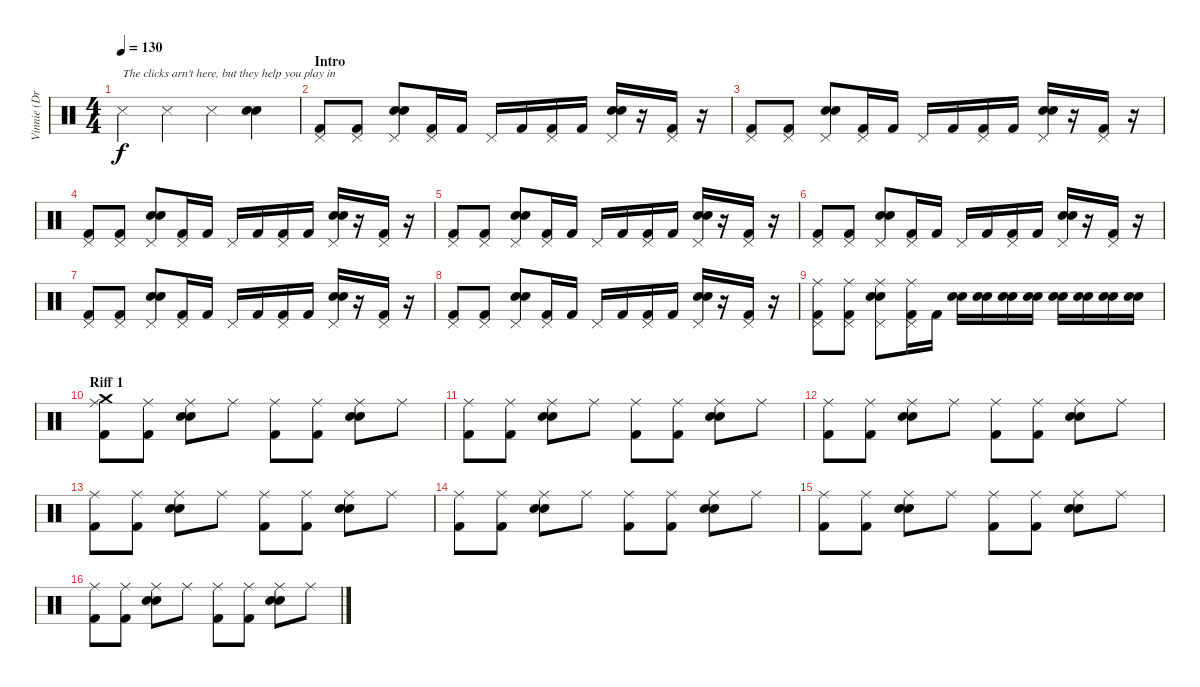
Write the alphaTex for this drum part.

\track ("Vinnie (Drums)" "Vinnie (Dr") {instrument percussion}
\staff {score}
\articulation defaults
\ts (4 4)
\tempo 130
\clef neutral
\ks c "Snare (side stick) 3".4{txt "The clicks arn't here, but they help you play in" dy f} "Snare (side stick) 3".4 "Snare (side stick) 3".4
("Snare (hit) 2" "Electric Snare (hit)").4 |
\section ("" "Intro")
("Kick (hit) 2" "Pedal Hi-Hat (hit)").8 ("Kick (hit) 2" "Pedal Hi-Hat (hit)").8 ("Snare (hit) 2" "Electric Snare (hit)" "Pedal Hi-Hat (hit)").8 ("Kick (hit) 2" "Pedal Hi-Hat (hit)").16 "Kick (hit) 2".16 "Pedal Hi-Hat (hit)".16 "Kick (hit) 2".16 ("Kick (hit) 2" "Pedal Hi-Hat (hit)").16 "Kick (hit) 2".16 ("Electric Snare (hit)" "Snare (hit) 2" "Pedal Hi-Hat (hit)").16 r.16 ("Kick (hit) 2" "Pedal Hi-Hat (hit)").16 r.16 |
("Kick (hit) 2" "Pedal Hi-Hat (hit)").8 ("Kick (hit) 2" "Pedal Hi-Hat (hit)").8 ("Snare (hit) 2" "Electric Snare (hit)" "Pedal Hi-Hat (hit)").8 ("Kick (hit) 2" "Pedal Hi-Hat (hit)").16 "Kick (hit) 2".16 "Pedal Hi-Hat (hit)".16 "Kick (hit) 2".16 ("Kick (hit) 2" "Pedal Hi-Hat (hit)").16 "Kick (hit) 2".16 ("Electric Snare (hit)" "Snare (hit) 2" "Pedal Hi-Hat (hit)").16 r.16 ("Kick (hit) 2" "Pedal Hi-Hat (hit)").16 r.16 |
("Kick (hit) 2" "Pedal Hi-Hat (hit)").8 ("Kick (hit) 2" "Pedal Hi-Hat (hit)").8 ("Snare (hit) 2" "Electric Snare (hit)" "Pedal Hi-Hat (hit)").8 ("Kick (hit) 2" "Pedal Hi-Hat (hit)").16 "Kick (hit) 2".16 "Pedal Hi-Hat (hit)".16 "Kick (hit) 2".16 ("Kick (hit) 2" "Pedal Hi-Hat (hit)").16 "Kick (hit) 2".16 ("Electric Snare (hit)" "Snare (hit) 2" "Pedal Hi-Hat (hit)").16 r.16 ("Kick (hit) 2" "Pedal Hi-Hat (hit)").16 r.16 |
("Kick (hit) 2" "Pedal Hi-Hat (hit)").8 ("Kick (hit) 2" "Pedal Hi-Hat (hit)").8 ("Snare (hit) 2" "Electric Snare (hit)" "Pedal Hi-Hat (hit)").8 ("Kick (hit) 2" "Pedal Hi-Hat (hit)").16 "Kick (hit) 2".16 "Pedal Hi-Hat (hit)".16 "Kick (hit) 2".16 ("Kick (hit) 2" "Pedal Hi-Hat (hit)").16 "Kick (hit) 2".16 ("Electric Snare (hit)" "Snare (hit) 2" "Pedal Hi-Hat (hit)").16 r.16 ("Kick (hit) 2" "Pedal Hi-Hat (hit)").16 r.16 |
("Kick (hit) 2" "Pedal Hi-Hat (hit)").8 ("Kick (hit) 2" "Pedal Hi-Hat (hit)").8 ("Snare (hit) 2" "Electric Snare (hit)" "Pedal Hi-Hat (hit)").8 ("Kick (hit) 2" "Pedal Hi-Hat (hit)").16 "Kick (hit) 2".16 "Pedal Hi-Hat (hit)".16 "Kick (hit) 2".16 ("Kick (hit) 2" "Pedal Hi-Hat (hit)").16 "Kick (hit) 2".16 ("Electric Snare (hit)" "Snare (hit) 2" "Pedal Hi-Hat (hit)").16 r.16 ("Kick (hit) 2" "Pedal Hi-Hat (hit)").16 r.16 |
("Kick (hit) 2" "Pedal Hi-Hat (hit)").8 ("Kick (hit) 2" "Pedal Hi-Hat (hit)").8 ("Snare (hit) 2" "Electric Snare (hit)" "Pedal Hi-Hat (hit)").8 ("Kick (hit) 2" "Pedal Hi-Hat (hit)").16 "Kick (hit) 2".16 "Pedal Hi-Hat (hit)".16 "Kick (hit) 2".16 ("Kick (hit) 2" "Pedal Hi-Hat (hit)").16 "Kick (hit) 2".16 ("Electric Snare (hit)" "Snare (hit) 2" "Pedal Hi-Hat (hit)").16 r.16 ("Kick (hit) 2" "Pedal Hi-Hat (hit)").16 r.16 |
("Kick (hit) 2" "Pedal Hi-Hat (hit)").8 ("Kick (hit) 2" "Pedal Hi-Hat (hit)").8 ("Snare (hit) 2" "Electric Snare (hit)" "Pedal Hi-Hat (hit)").8 ("Kick (hit) 2" "Pedal Hi-Hat (hit)").16 "Kick (hit) 2".16 "Pedal Hi-Hat (hit)".16 "Kick (hit) 2".16 ("Kick (hit) 2" "Pedal Hi-Hat (hit)").16 "Kick (hit) 2".16 ("Electric Snare (hit)" "Snare (hit) 2" "Pedal Hi-Hat (hit)").16 r.16 ("Kick (hit) 2" "Pedal Hi-Hat (hit)").16 r.16 |
("Kick (hit) 2" "Pedal Hi-Hat (hit)" "Ride (middle)").8 ("Kick (hit) 2" "Pedal Hi-Hat (hit)" "Ride (middle)").8 ("Snare (hit) 2" "Electric Snare (hit)" "Pedal Hi-Hat (hit)" "Ride (middle)").8 ("Kick (hit) 2" "Pedal Hi-Hat (hit)" "Ride (middle)").16 "Kick (hit) 2".16 ("Snare (hit) 2" "Electric Snare (hit)").16 ("Snare (hit) 2" "Electric Snare (hit)").16 ("Snare (hit) 2" "Electric Snare (hit)").16 ("Snare (hit) 2" "Electric Snare (hit)").16 ("Snare (hit) 2" "Electric Snare (hit)").16 ("Snare (hit) 2" "Electric Snare (hit)").16 ("Snare (hit) 2" "Electric Snare (hit)").16 ("Snare (hit) 2" "Electric Snare (hit)").16 |
\section ("" "Riff 1")
("Kick (hit) 2" "Ride (middle)" "Crash medium (hit)").8 ("Kick (hit) 2" "Ride (middle)").8 ("Snare (hit) 2" "Electric Snare (hit)" "Ride (middle)").8 "Ride (middle)".8 ("Kick (hit) 2" "Ride (middle)").8 ("Kick (hit) 2" "Ride (middle)").8 ("Snare (hit) 2" "Electric Snare (hit)" "Ride (middle)").8 "Ride (middle)".8 |
("Kick (hit) 2" "Ride (middle)").8 ("Kick (hit) 2" "Ride (middle)").8 ("Snare (hit) 2" "Electric Snare (hit)" "Ride (middle)").8 "Ride (middle)".8 ("Kick (hit) 2" "Ride (middle)").8 ("Kick (hit) 2" "Ride (middle)").8 ("Snare (hit) 2" "Electric Snare (hit)" "Ride (middle)").8 "Ride (middle)".8 |
("Kick (hit) 2" "Ride (middle)").8 ("Kick (hit) 2" "Ride (middle)").8 ("Snare (hit) 2" "Electric Snare (hit)" "Ride (middle)").8 "Ride (middle)".8 ("Kick (hit) 2" "Ride (middle)").8 ("Kick (hit) 2" "Ride (middle)").8 ("Snare (hit) 2" "Electric Snare (hit)" "Ride (middle)").8 "Ride (middle)".8 |
("Kick (hit) 2" "Ride (middle)").8 ("Kick (hit) 2" "Ride (middle)").8 ("Snare (hit) 2" "Electric Snare (hit)" "Ride (middle)").8 "Ride (middle)".8 ("Kick (hit) 2" "Ride (middle)").8 ("Kick (hit) 2" "Ride (middle)").8 ("Snare (hit) 2" "Electric Snare (hit)" "Ride (middle)").8 "Ride (middle)".8 |
("Kick (hit) 2" "Ride (middle)").8 ("Kick (hit) 2" "Ride (middle)").8 ("Snare (hit) 2" "Electric Snare (hit)" "Ride (middle)").8 "Ride (middle)".8 ("Kick (hit) 2" "Ride (middle)").8 ("Kick (hit) 2" "Ride (middle)").8 ("Snare (hit) 2" "Electric Snare (hit)" "Ride (middle)").8 "Ride (middle)".8 |
("Kick (hit) 2" "Ride (middle)").8 ("Kick (hit) 2" "Ride (middle)").8 ("Snare (hit) 2" "Electric Snare (hit)" "Ride (middle)").8 "Ride (middle)".8 ("Kick (hit) 2" "Ride (middle)").8 ("Kick (hit) 2" "Ride (middle)").8 ("Snare (hit) 2" "Electric Snare (hit)" "Ride (middle)").8 "Ride (middle)".8 |
("Kick (hit) 2" "Ride (middle)").8 ("Kick (hit) 2" "Ride (middle)").8 ("Snare (hit) 2" "Electric Snare (hit)" "Ride (middle)").8 "Ride (middle)".8 ("Kick (hit) 2" "Ride (middle)").8 ("Kick (hit) 2" "Ride (middle)").8 ("Snare (hit) 2" "Electric Snare (hit)" "Ride (middle)").8 "Ride (middle)".8
